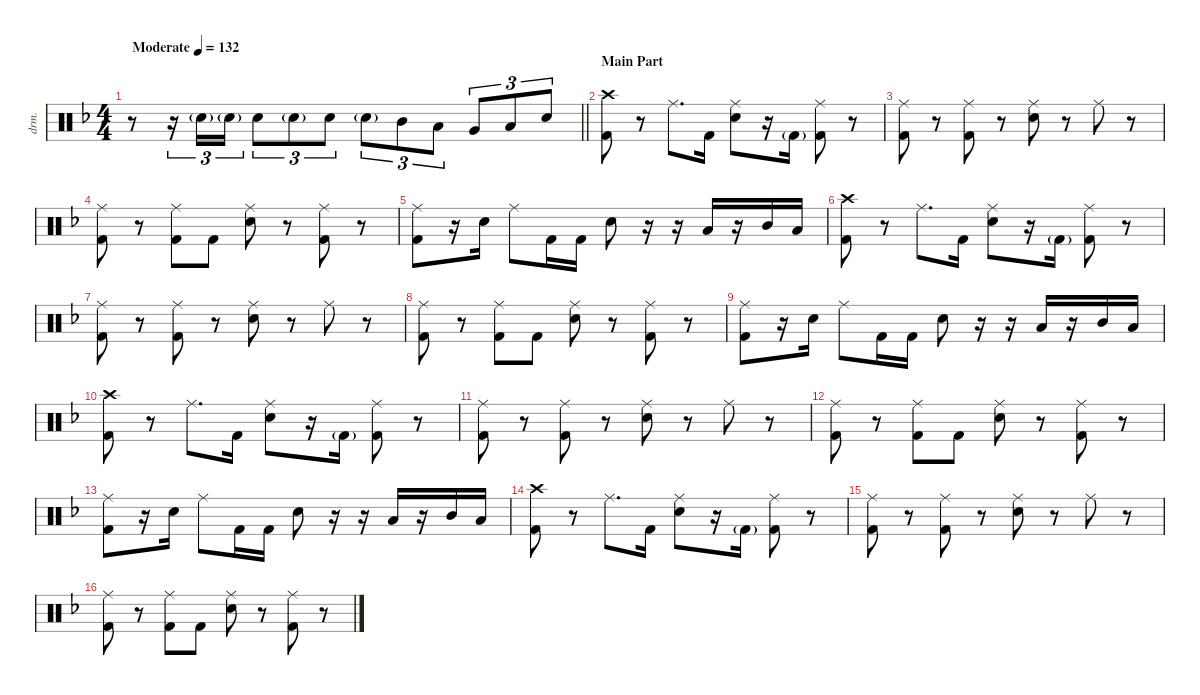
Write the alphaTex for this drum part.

\defaultSystemsLayout 4
\hideDynamics
\bracketExtendMode nobrackets
\otherSystemsTrackNameOrientation horizontal
\track ("Drums" "drm.") {instrument percussion}
\staff {score}
\articulation defaults
\ts (4 4)
\beaming (8 2 2 2 2)
\tempo (132 "Moderate")
\clef neutral
\barLineRight lightlight
\ks dminor
r.8{dy mf} r.16{tu (3 2)} "Snare (hit) 2"{g acc forcenatural}.16{tu (3 2)} "Snare (hit) 2"{g acc forcenatural}.16{tu (3 2)} "Snare (hit) 2"{acc forcenatural}.8{tu (3 2) dy f} "Snare (hit) 2"{g acc forcenatural}.8{tu (3 2) dy mf} "Snare (hit) 2"{acc forcenatural}.8{tu (3 2) dy f} "Snare (hit) 2"{g acc forcenatural}.8{tu (3 2) dy mf} "Mid Tom (hit)"{acc forcenatural}.8{tu (3 2) dy f} "Low Tom (hit)"{acc forcenatural}.8{tu (3 2)} "Very Low Tom (hit)"{acc forcenatural}.8{tu (3 2)} "Low Floor Tom (hit)"{acc forcenatural}.8{tu (3 2)} "Snare (hit) 2"{acc forcenatural}.8{tu (3 2)} |
\section ("" "Main Part")
("Crash high (hit)"{acc forcenatural} "Kick (hit) 2"{acc forcenatural}).8 r.8 "Ride (middle)"{acc forcenatural}.8{d} "Kick (hit) 2"{acc forcenatural}.16 ("Ride (middle)"{acc forcenatural} "Snare (hit) 2"{acc forcenatural}).8 r.16 "Kick (hit) 2"{g acc forcenatural}.16{dy mf} ("Ride (middle)"{acc forcenatural} "Kick (hit) 2"{acc forcenatural}).8{dy f} r.8 |
("Ride (middle)"{acc forcenatural} "Kick (hit) 2"{acc forcenatural}).8 r.8 ("Ride (middle)"{acc forcenatural} "Kick (hit) 2"{acc forcenatural}).8 r.8 ("Ride (middle)"{acc forcenatural} "Snare (hit) 2"{acc forcenatural}).8 r.8 "Ride (middle)"{acc forcenatural}.8 r.8 |
("Ride (middle)"{acc forcenatural} "Kick (hit) 2"{acc forcenatural}).8 r.8 ("Ride (middle)"{acc forcenatural} "Kick (hit) 2"{acc forcenatural}).8 "Kick (hit) 2"{acc forcenatural}.8 ("Ride (middle)"{acc forcenatural} "Snare (hit) 2"{acc forcenatural}).8 r.8 ("Ride (middle)"{acc forcenatural} "Kick (hit) 2"{acc forcenatural}).8 r.8 |
("Ride (middle)"{acc forcenatural} "Kick (hit) 2"{acc forcenatural}).8 r.16 "Snare (hit) 2"{acc forcenatural}.16 "Ride (middle)"{acc forcenatural}.8 "Kick (hit) 2"{acc forcenatural}.16 "Kick (hit) 2"{acc forcenatural}.16 "Snare (hit) 2"{acc forcenatural}.8 r.16 r.16 "Low Tom (hit)"{acc forcenatural}.16 r.16 "Mid Tom (hit)"{acc forcenatural}.16 "Low Tom (hit)"{acc forcenatural}.16 |
("Crash high (hit)"{acc forcenatural} "Kick (hit) 2"{acc forcenatural}).8 r.8 "Ride (middle)"{acc forcenatural}.8{d} "Kick (hit) 2"{acc forcenatural}.16 ("Ride (middle)"{acc forcenatural} "Snare (hit) 2"{acc forcenatural}).8 r.16 "Kick (hit) 2"{g acc forcenatural}.16{dy mf} ("Ride (middle)"{acc forcenatural} "Kick (hit) 2"{acc forcenatural}).8{dy f} r.8 |
("Ride (middle)"{acc forcenatural} "Kick (hit) 2"{acc forcenatural}).8 r.8 ("Ride (middle)"{acc forcenatural} "Kick (hit) 2"{acc forcenatural}).8 r.8 ("Ride (middle)"{acc forcenatural} "Snare (hit) 2"{acc forcenatural}).8 r.8 "Ride (middle)"{acc forcenatural}.8 r.8 |
("Ride (middle)"{acc forcenatural} "Kick (hit) 2"{acc forcenatural}).8 r.8 ("Ride (middle)"{acc forcenatural} "Kick (hit) 2"{acc forcenatural}).8 "Kick (hit) 2"{acc forcenatural}.8 ("Ride (middle)"{acc forcenatural} "Snare (hit) 2"{acc forcenatural}).8 r.8 ("Ride (middle)"{acc forcenatural} "Kick (hit) 2"{acc forcenatural}).8 r.8 |
("Ride (middle)"{acc forcenatural} "Kick (hit) 2"{acc forcenatural}).8 r.16 "Snare (hit) 2"{acc forcenatural}.16 "Ride (middle)"{acc forcenatural}.8 "Kick (hit) 2"{acc forcenatural}.16 "Kick (hit) 2"{acc forcenatural}.16 "Snare (hit) 2"{acc forcenatural}.8 r.16 r.16 "Low Tom (hit)"{acc forcenatural}.16 r.16 "Mid Tom (hit)"{acc forcenatural}.16 "Low Tom (hit)"{acc forcenatural}.16 |
("Crash high (hit)"{acc forcenatural} "Kick (hit) 2"{acc forcenatural}).8 r.8 "Ride (middle)"{acc forcenatural}.8{d} "Kick (hit) 2"{acc forcenatural}.16 ("Ride (middle)"{acc forcenatural} "Snare (hit) 2"{acc forcenatural}).8 r.16 "Kick (hit) 2"{g acc forcenatural}.16{dy mf} ("Ride (middle)"{acc forcenatural} "Kick (hit) 2"{acc forcenatural}).8{dy f} r.8 |
("Ride (middle)"{acc forcenatural} "Kick (hit) 2"{acc forcenatural}).8 r.8 ("Ride (middle)"{acc forcenatural} "Kick (hit) 2"{acc forcenatural}).8 r.8 ("Ride (middle)"{acc forcenatural} "Snare (hit) 2"{acc forcenatural}).8 r.8 "Ride (middle)"{acc forcenatural}.8 r.8 |
("Ride (middle)"{acc forcenatural} "Kick (hit) 2"{acc forcenatural}).8 r.8 ("Ride (middle)"{acc forcenatural} "Kick (hit) 2"{acc forcenatural}).8 "Kick (hit) 2"{acc forcenatural}.8 ("Ride (middle)"{acc forcenatural} "Snare (hit) 2"{acc forcenatural}).8 r.8 ("Ride (middle)"{acc forcenatural} "Kick (hit) 2"{acc forcenatural}).8 r.8 |
("Ride (middle)"{acc forcenatural} "Kick (hit) 2"{acc forcenatural}).8 r.16 "Snare (hit) 2"{acc forcenatural}.16 "Ride (middle)"{acc forcenatural}.8 "Kick (hit) 2"{acc forcenatural}.16 "Kick (hit) 2"{acc forcenatural}.16 "Snare (hit) 2"{acc forcenatural}.8 r.16 r.16 "Low Tom (hit)"{acc forcenatural}.16 r.16 "Mid Tom (hit)"{acc forcenatural}.16 "Low Tom (hit)"{acc forcenatural}.16 |
("Crash high (hit)"{acc forcenatural} "Kick (hit) 2"{acc forcenatural}).8 r.8 "Ride (middle)"{acc forcenatural}.8{d} "Kick (hit) 2"{acc forcenatural}.16 ("Ride (middle)"{acc forcenatural} "Snare (hit) 2"{acc forcenatural}).8 r.16 "Kick (hit) 2"{g acc forcenatural}.16{dy mf} ("Ride (middle)"{acc forcenatural} "Kick (hit) 2"{acc forcenatural}).8{dy f} r.8 |
("Ride (middle)"{acc forcenatural} "Kick (hit) 2"{acc forcenatural}).8 r.8 ("Ride (middle)"{acc forcenatural} "Kick (hit) 2"{acc forcenatural}).8 r.8 ("Ride (middle)"{acc forcenatural} "Snare (hit) 2"{acc forcenatural}).8 r.8 "Ride (middle)"{acc forcenatural}.8 r.8 |
("Ride (middle)"{acc forcenatural} "Kick (hit) 2"{acc forcenatural}).8 r.8 ("Ride (middle)"{acc forcenatural} "Kick (hit) 2"{acc forcenatural}).8 "Kick (hit) 2"{acc forcenatural}.8 ("Ride (middle)"{acc forcenatural} "Snare (hit) 2"{acc forcenatural}).8 r.8 ("Ride (middle)"{acc forcenatural} "Kick (hit) 2"{acc forcenatural}).8 r.8
